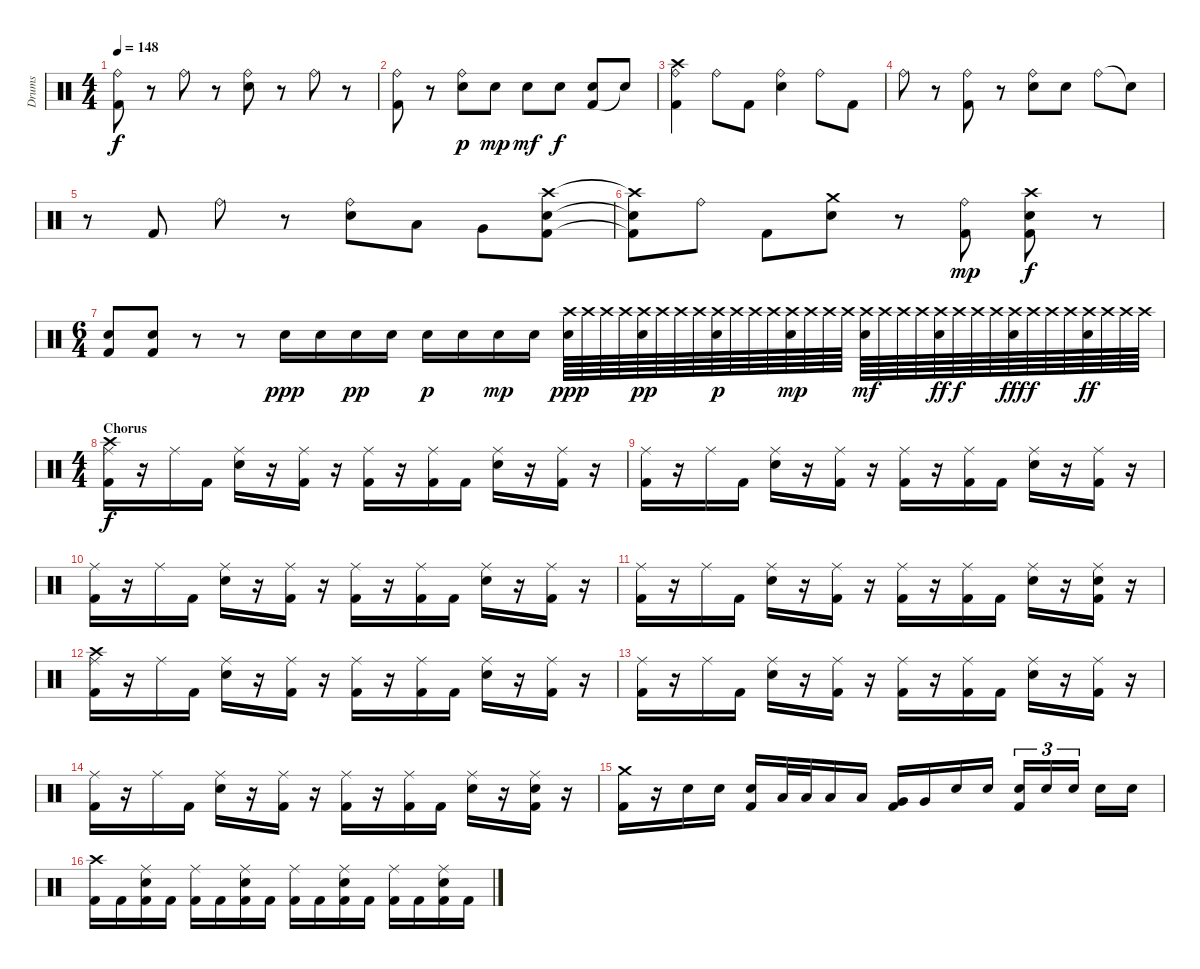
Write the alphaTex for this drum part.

\track ("Drums" "Drums") {instrument percussion}
\staff {score}
\articulation defaults
\ts (4 4)
\tempo 148
\clef neutral
\ks c
("Kick (hit) 2" "Ride (bell)").8{dy f} r.8 "Ride (bell)".8 r.8 ("Electric Snare (hit)" "Ride (bell)").8 r.8 "Ride (bell)".8 r.8 |
("Kick (hit) 2" "Ride (bell)").8 r.8 ("Electric Snare (hit)" "Ride (bell)").8{dy p} "Electric Snare (hit)".8{dy mp} "Electric Snare (hit)".8{dy mf} "Electric Snare (hit)".8{dy f} ("Kick (hit) 2" "Electric Snare (hit)").8 "Electric Snare (hit)"{t}.8 |
("Kick (hit) 2" "Ride (bell)" "Crash high (hit)").4 "Ride (bell)".8 "Kick (hit) 2".8 ("Electric Snare (hit)" "Ride (bell)").4 "Ride (bell)".8 "Kick (hit) 2".8 |
"Ride (bell)".8 r.8 ("Kick (hit) 2" "Ride (bell)").8 r.8 ("Electric Snare (hit)" "Ride (bell)").8 "Electric Snare (hit)".8 "Ride (bell)".8 "Snare (hit)"{t}.8 |
r.8 "Kick (hit) 2".8 "Ride (bell)".8 r.8 ("Electric Snare (hit)" "Ride (bell)").8 "Low Tom (hit)".8 "Very Low Tom (hit)".8 ("Kick (hit) 2" "Electric Snare (hit)" "Crash high (hit)").8 |
("Kick (hit) 2"{t} "Electric Snare (hit)"{t} "Crash high (hit)"{t}).8 "Ride (bell)".8 "Kick (hit) 2".8 ("Electric Snare (hit)" "Crash medium (hit)").8 r.8 ("Kick (hit) 2" "Ride (bell)").8{dy mp} ("Kick (hit) 2" "Electric Snare (hit)" "Crash high (hit)").8{dy f} r.8 |
\ts (6 4)
("Kick (hit) 2" "Electric Snare (hit)").8 ("Kick (hit) 2" "Electric Snare (hit)").8 r.8 r.8 "Electric Snare (hit)".16{dy ppp} "Electric Snare (hit)".16 "Electric Snare (hit)".16{dy pp} "Electric Snare (hit)".16 "Electric Snare (hit)".16{dy p} "Electric Snare (hit)".16 "Electric Snare (hit)".16{dy mp} "Electric Snare (hit)".16 ("Electric Snare (hit)" "Crash high (hit)").64{dy ppp} "Crash high (hit)".64 "Crash high (hit)".64 "Crash high (hit)".64 ("Electric Snare (hit)" "Crash high (hit)").64{dy pp} "Crash high (hit)".64 "Crash high (hit)".64 "Crash high (hit)".64 ("Electric Snare (hit)" "Crash high (hit)").64{dy p} "Crash high (hit)".64 "Crash high (hit)".64 "Crash high (hit)".64 ("Electric Snare (hit)" "Crash high (hit)").64{dy mp} "Crash high (hit)".64 "Crash high (hit)".64 "Crash high (hit)".64 ("Electric Snare (hit)" "Crash high (hit)").64{dy mf} "Crash high (hit)".64 "Crash high (hit)".64 "Crash high (hit)".64 ("Electric Snare (hit)" "Crash high (hit)").64{dy ff} "Crash high (hit)".64{dy f} "Crash high (hit)".64 "Crash high (hit)".64 ("Electric Snare (hit)" "Crash high (hit)").64{dy fff} "Crash high (hit)".64{dy f} "Crash high (hit)".64 "Crash high (hit)".64 ("Electric Snare (hit)" "Crash high (hit)").64{dy ff} "Crash high (hit)".64 "Crash high (hit)".64 "Crash high (hit)".64 |
\ts (4 4)
\section ("" "Chorus")
("Kick (hit) 2" "Ride (middle)" "Crash high (hit)").16{dy f} r.16 "Ride (middle)".16 "Kick (hit) 2".16 ("Electric Snare (hit)" "Ride (middle)").16 r.16 ("Kick (hit) 2" "Ride (middle)").16 r.16 ("Kick (hit) 2" "Ride (middle)").16 r.16 ("Kick (hit) 2" "Ride (middle)").16 "Kick (hit) 2".16 ("Electric Snare (hit)" "Ride (middle)").16 r.16 ("Kick (hit) 2" "Ride (middle)").16 r.16 |
("Kick (hit) 2" "Ride (middle)").16 r.16 "Ride (middle)".16 "Kick (hit) 2".16 ("Electric Snare (hit)" "Ride (middle)").16 r.16 ("Kick (hit) 2" "Ride (middle)").16 r.16 ("Kick (hit) 2" "Ride (middle)").16 r.16 ("Kick (hit) 2" "Ride (middle)").16 "Kick (hit) 2".16 ("Electric Snare (hit)" "Ride (middle)").16 r.16 ("Kick (hit) 2" "Ride (middle)").16 r.16 |
("Kick (hit) 2" "Ride (middle)").16 r.16 "Ride (middle)".16 "Kick (hit) 2".16 ("Electric Snare (hit)" "Ride (middle)").16 r.16 ("Kick (hit) 2" "Ride (middle)").16 r.16 ("Kick (hit) 2" "Ride (middle)").16 r.16 ("Kick (hit) 2" "Ride (middle)").16 "Kick (hit) 2".16 ("Electric Snare (hit)" "Ride (middle)").16 r.16 ("Kick (hit) 2" "Ride (middle)").16 r.16 |
("Kick (hit) 2" "Ride (middle)").16 r.16 "Ride (middle)".16 "Kick (hit) 2".16 ("Electric Snare (hit)" "Ride (middle)").16 r.16 ("Kick (hit) 2" "Ride (middle)").16 r.16 ("Kick (hit) 2" "Ride (middle)").16 r.16 ("Kick (hit) 2" "Ride (middle)").16 "Kick (hit) 2".16 ("Electric Snare (hit)" "Ride (middle)").16 r.16 ("Kick (hit) 2" "Electric Snare (hit)" "Ride (middle)").16 r.16 |
("Kick (hit) 2" "Ride (middle)" "Crash high (hit)").16 r.16 "Ride (middle)".16 "Kick (hit) 2".16 ("Electric Snare (hit)" "Ride (middle)").16 r.16 ("Kick (hit) 2" "Ride (middle)").16 r.16 ("Kick (hit) 2" "Ride (middle)").16 r.16 ("Kick (hit) 2" "Ride (middle)").16 "Kick (hit) 2".16 ("Electric Snare (hit)" "Ride (middle)").16 r.16 ("Kick (hit) 2" "Ride (middle)").16 r.16 |
("Kick (hit) 2" "Ride (middle)").16 r.16 "Ride (middle)".16 "Kick (hit) 2".16 ("Electric Snare (hit)" "Ride (middle)").16 r.16 ("Kick (hit) 2" "Ride (middle)").16 r.16 ("Kick (hit) 2" "Ride (middle)").16 r.16 ("Kick (hit) 2" "Ride (middle)").16 "Kick (hit) 2".16 ("Electric Snare (hit)" "Ride (middle)").16 r.16 ("Kick (hit) 2" "Ride (middle)").16 r.16 |
("Kick (hit) 2" "Ride (middle)").16 r.16 "Ride (middle)".16 "Kick (hit) 2".16 ("Electric Snare (hit)" "Ride (middle)").16 r.16 ("Kick (hit) 2" "Ride (middle)").16 r.16 ("Kick (hit) 2" "Ride (middle)").16 r.16 ("Kick (hit) 2" "Ride (middle)").16 "Kick (hit) 2".16 ("Electric Snare (hit)" "Ride (middle)").16 r.16 ("Kick (hit) 2" "Electric Snare (hit)" "Ride (middle)").16 r.16 |
("Kick (hit) 2" "Crash medium (hit)").16 r.16 "Electric Snare (hit)".16 "Electric Snare (hit)".16 ("Kick (hit) 2" "Electric Snare (hit)").16 "Low Tom (hit)".32 "Low Tom (hit)".32 "Low Tom (hit)".16 "Low Tom (hit)".16 ("Kick (hit) 2" "Very Low Tom (hit)").16 "Very Low Tom (hit)".16 "Electric Snare (hit)".16 "Electric Snare (hit)".16 ("Kick (hit) 2" "Electric Snare (hit)").16{tu (3 2)} "Electric Snare (hit)".16{tu (3 2)} "Electric Snare (hit)".16{tu (3 2)} "Electric Snare (hit)".16 "Electric Snare (hit)".16 |
("Kick (hit) 2" "Crash high (hit)").16 "Kick (hit) 2".16 ("Kick (hit) 2" "Electric Snare (hit)" "Ride (middle)").16 "Kick (hit) 2".16 ("Kick (hit) 2" "Ride (middle)").16 "Kick (hit) 2".16 ("Kick (hit) 2" "Electric Snare (hit)" "Ride (middle)").16 "Kick (hit) 2".16 ("Kick (hit) 2" "Ride (middle)").16 "Kick (hit) 2".16 ("Kick (hit) 2" "Electric Snare (hit)" "Ride (middle)").16 "Kick (hit) 2".16 ("Kick (hit) 2" "Ride (middle)").16 "Kick (hit) 2".16 ("Kick (hit) 2" "Electric Snare (hit)" "Ride (middle)").16 "Kick (hit) 2".16
